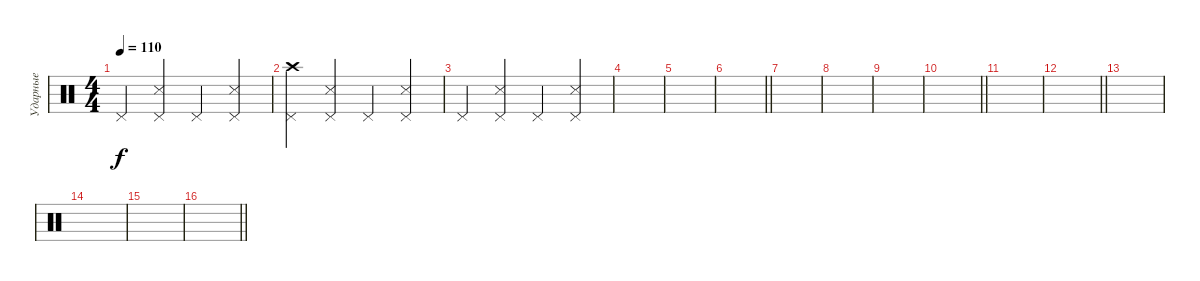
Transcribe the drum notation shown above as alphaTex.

\track ("Ударные" "Ударные") {instrument percussion}
\staff {score}
\articulation defaults
\ts (4 4)
\tempo 110
\clef neutral
\ks c "Pedal Hi-Hat (hit)".4{dy f}
("Pedal Hi-Hat (hit)" "Snare (side stick) 3").4 "Pedal Hi-Hat (hit)".4 ("Pedal Hi-Hat (hit)" "Snare (side stick) 3").4 |
("Pedal Hi-Hat (hit)" "Crash high (hit)").4 ("Pedal Hi-Hat (hit)" "Snare (side stick) 3").4 "Pedal Hi-Hat (hit)".4 ("Pedal Hi-Hat (hit)" "Snare (side stick) 3").4 |
"Pedal Hi-Hat (hit)".4 ("Pedal Hi-Hat (hit)" "Snare (side stick) 3").4 "Pedal Hi-Hat (hit)".4 ("Pedal Hi-Hat (hit)" "Snare (side stick) 3").4 |
|
|
\barLineRight lightlight
|
|
|
|
\barLineRight lightlight
|
|
\barLineRight lightlight
|
|
|
|
\barLineRight lightlight
